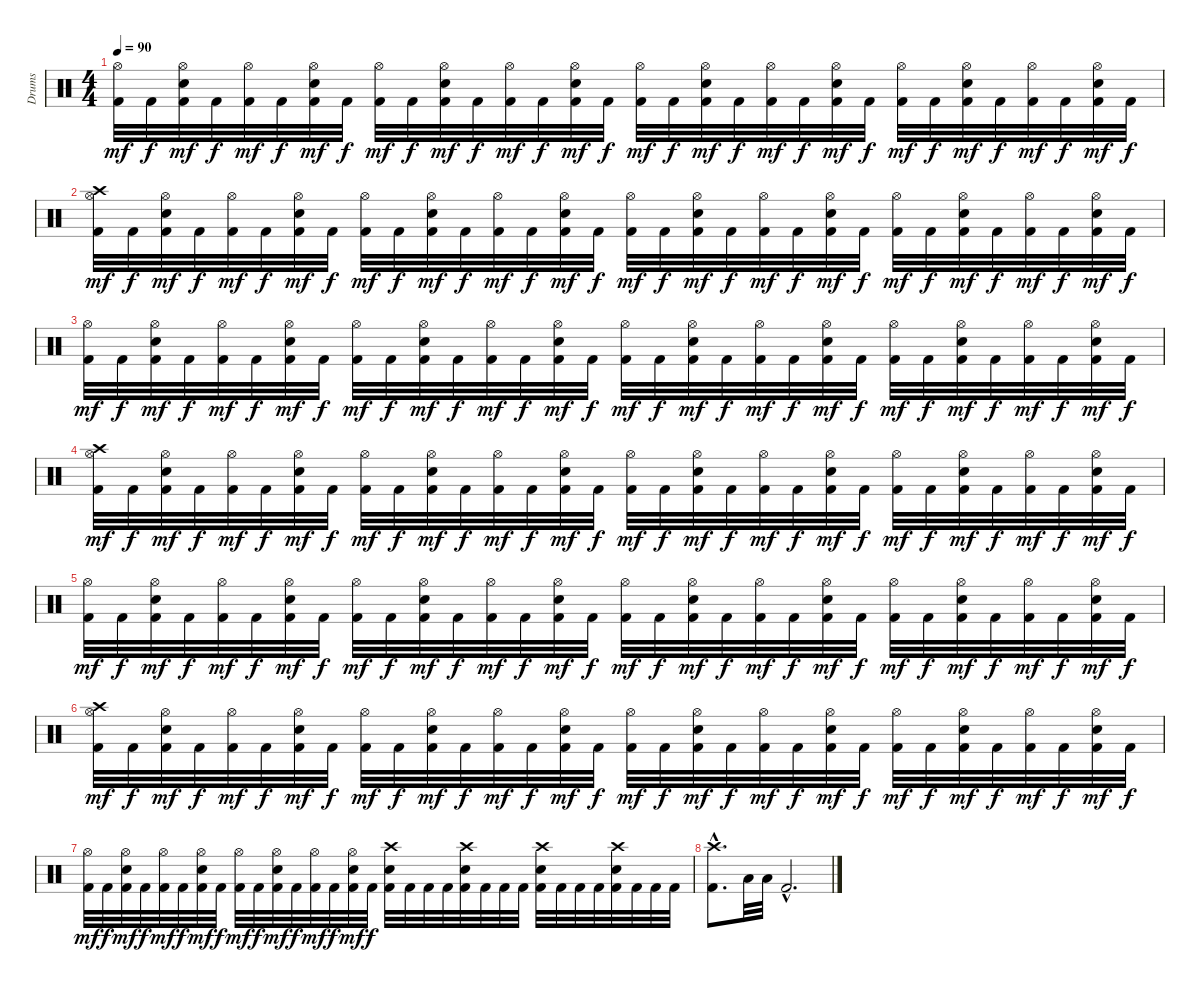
\track ("Drums" "Drums") {instrument percussion}
\staff {score}
\articulation defaults
\ts (4 4)
\tempo 90
\clef neutral
\ks c
("Hi-Hat (open)" "Kick (hit) 2").32{dy mf} "Kick (hit) 2".32{dy f} ("Hi-Hat (open)" "Electric Snare (hit)" "Kick (hit) 2").32{dy mf} "Kick (hit) 2".32{dy f} ("Hi-Hat (open)" "Kick (hit) 2").32{dy mf} "Kick (hit) 2".32{dy f} ("Hi-Hat (open)" "Electric Snare (hit)" "Kick (hit) 2").32{dy mf} "Kick (hit) 2".32{dy f} ("Hi-Hat (open)" "Kick (hit) 2").32{dy mf} "Kick (hit) 2".32{dy f} ("Hi-Hat (open)" "Electric Snare (hit)" "Kick (hit) 2").32{dy mf} "Kick (hit) 2".32{dy f} ("Hi-Hat (open)" "Kick (hit) 2").32{dy mf} "Kick (hit) 2".32{dy f} ("Hi-Hat (open)" "Electric Snare (hit)" "Kick (hit) 2").32{dy mf} "Kick (hit) 2".32{dy f} ("Hi-Hat (open)" "Kick (hit) 2").32{dy mf} "Kick (hit) 2".32{dy f} ("Hi-Hat (open)" "Electric Snare (hit)" "Kick (hit) 2").32{dy mf} "Kick (hit) 2".32{dy f} ("Hi-Hat (open)" "Kick (hit) 2").32{dy mf} "Kick (hit) 2".32{dy f} ("Hi-Hat (open)" "Electric Snare (hit)" "Kick (hit) 2").32{dy mf} "Kick (hit) 2".32{dy f} ("Hi-Hat (open)" "Kick (hit) 2").32{dy mf} "Kick (hit) 2".32{dy f} ("Hi-Hat (open)" "Electric Snare (hit)" "Kick (hit) 2").32{dy mf} "Kick (hit) 2".32{dy f} ("Hi-Hat (open)" "Kick (hit) 2").32{dy mf} "Kick (hit) 2".32{dy f} ("Hi-Hat (open)" "Electric Snare (hit)" "Kick (hit) 2").32{dy mf} "Kick (hit) 2".32{dy f} |
("Crash high (hit)" "Hi-Hat (open)" "Kick (hit) 2").32{dy mf} "Kick (hit) 2".32{dy f} ("Hi-Hat (open)" "Electric Snare (hit)" "Kick (hit) 2").32{dy mf} "Kick (hit) 2".32{dy f} ("Hi-Hat (open)" "Kick (hit) 2").32{dy mf} "Kick (hit) 2".32{dy f} ("Hi-Hat (open)" "Electric Snare (hit)" "Kick (hit) 2").32{dy mf} "Kick (hit) 2".32{dy f} ("Hi-Hat (open)" "Kick (hit) 2").32{dy mf} "Kick (hit) 2".32{dy f} ("Hi-Hat (open)" "Electric Snare (hit)" "Kick (hit) 2").32{dy mf} "Kick (hit) 2".32{dy f} ("Hi-Hat (open)" "Kick (hit) 2").32{dy mf} "Kick (hit) 2".32{dy f} ("Hi-Hat (open)" "Electric Snare (hit)" "Kick (hit) 2").32{dy mf} "Kick (hit) 2".32{dy f} ("Hi-Hat (open)" "Kick (hit) 2").32{dy mf} "Kick (hit) 2".32{dy f} ("Hi-Hat (open)" "Electric Snare (hit)" "Kick (hit) 2").32{dy mf} "Kick (hit) 2".32{dy f} ("Hi-Hat (open)" "Kick (hit) 2").32{dy mf} "Kick (hit) 2".32{dy f} ("Hi-Hat (open)" "Electric Snare (hit)" "Kick (hit) 2").32{dy mf} "Kick (hit) 2".32{dy f} ("Hi-Hat (open)" "Kick (hit) 2").32{dy mf} "Kick (hit) 2".32{dy f} ("Hi-Hat (open)" "Electric Snare (hit)" "Kick (hit) 2").32{dy mf} "Kick (hit) 2".32{dy f} ("Hi-Hat (open)" "Kick (hit) 2").32{dy mf} "Kick (hit) 2".32{dy f} ("Hi-Hat (open)" "Electric Snare (hit)" "Kick (hit) 2").32{dy mf} "Kick (hit) 2".32{dy f} |
("Hi-Hat (open)" "Kick (hit) 2").32{dy mf} "Kick (hit) 2".32{dy f} ("Hi-Hat (open)" "Electric Snare (hit)" "Kick (hit) 2").32{dy mf} "Kick (hit) 2".32{dy f} ("Hi-Hat (open)" "Kick (hit) 2").32{dy mf} "Kick (hit) 2".32{dy f} ("Hi-Hat (open)" "Electric Snare (hit)" "Kick (hit) 2").32{dy mf} "Kick (hit) 2".32{dy f} ("Hi-Hat (open)" "Kick (hit) 2").32{dy mf} "Kick (hit) 2".32{dy f} ("Hi-Hat (open)" "Electric Snare (hit)" "Kick (hit) 2").32{dy mf} "Kick (hit) 2".32{dy f} ("Hi-Hat (open)" "Kick (hit) 2").32{dy mf} "Kick (hit) 2".32{dy f} ("Hi-Hat (open)" "Electric Snare (hit)" "Kick (hit) 2").32{dy mf} "Kick (hit) 2".32{dy f} ("Hi-Hat (open)" "Kick (hit) 2").32{dy mf} "Kick (hit) 2".32{dy f} ("Hi-Hat (open)" "Electric Snare (hit)" "Kick (hit) 2").32{dy mf} "Kick (hit) 2".32{dy f} ("Hi-Hat (open)" "Kick (hit) 2").32{dy mf} "Kick (hit) 2".32{dy f} ("Hi-Hat (open)" "Electric Snare (hit)" "Kick (hit) 2").32{dy mf} "Kick (hit) 2".32{dy f} ("Hi-Hat (open)" "Kick (hit) 2").32{dy mf} "Kick (hit) 2".32{dy f} ("Hi-Hat (open)" "Electric Snare (hit)" "Kick (hit) 2").32{dy mf} "Kick (hit) 2".32{dy f} ("Hi-Hat (open)" "Kick (hit) 2").32{dy mf} "Kick (hit) 2".32{dy f} ("Hi-Hat (open)" "Electric Snare (hit)" "Kick (hit) 2").32{dy mf} "Kick (hit) 2".32{dy f} |
("Crash high (hit)" "Hi-Hat (open)" "Kick (hit) 2").32{dy mf} "Kick (hit) 2".32{dy f} ("Hi-Hat (open)" "Electric Snare (hit)" "Kick (hit) 2").32{dy mf} "Kick (hit) 2".32{dy f} ("Hi-Hat (open)" "Kick (hit) 2").32{dy mf} "Kick (hit) 2".32{dy f} ("Hi-Hat (open)" "Electric Snare (hit)" "Kick (hit) 2").32{dy mf} "Kick (hit) 2".32{dy f} ("Hi-Hat (open)" "Kick (hit) 2").32{dy mf} "Kick (hit) 2".32{dy f} ("Hi-Hat (open)" "Electric Snare (hit)" "Kick (hit) 2").32{dy mf} "Kick (hit) 2".32{dy f} ("Hi-Hat (open)" "Kick (hit) 2").32{dy mf} "Kick (hit) 2".32{dy f} ("Hi-Hat (open)" "Electric Snare (hit)" "Kick (hit) 2").32{dy mf} "Kick (hit) 2".32{dy f} ("Hi-Hat (open)" "Kick (hit) 2").32{dy mf} "Kick (hit) 2".32{dy f} ("Hi-Hat (open)" "Electric Snare (hit)" "Kick (hit) 2").32{dy mf} "Kick (hit) 2".32{dy f} ("Hi-Hat (open)" "Kick (hit) 2").32{dy mf} "Kick (hit) 2".32{dy f} ("Hi-Hat (open)" "Electric Snare (hit)" "Kick (hit) 2").32{dy mf} "Kick (hit) 2".32{dy f} ("Hi-Hat (open)" "Kick (hit) 2").32{dy mf} "Kick (hit) 2".32{dy f} ("Hi-Hat (open)" "Electric Snare (hit)" "Kick (hit) 2").32{dy mf} "Kick (hit) 2".32{dy f} ("Hi-Hat (open)" "Kick (hit) 2").32{dy mf} "Kick (hit) 2".32{dy f} ("Hi-Hat (open)" "Electric Snare (hit)" "Kick (hit) 2").32{dy mf} "Kick (hit) 2".32{dy f} |
("Hi-Hat (open)" "Kick (hit) 2").32{dy mf} "Kick (hit) 2".32{dy f} ("Hi-Hat (open)" "Electric Snare (hit)" "Kick (hit) 2").32{dy mf} "Kick (hit) 2".32{dy f} ("Hi-Hat (open)" "Kick (hit) 2").32{dy mf} "Kick (hit) 2".32{dy f} ("Hi-Hat (open)" "Electric Snare (hit)" "Kick (hit) 2").32{dy mf} "Kick (hit) 2".32{dy f} ("Hi-Hat (open)" "Kick (hit) 2").32{dy mf} "Kick (hit) 2".32{dy f} ("Hi-Hat (open)" "Electric Snare (hit)" "Kick (hit) 2").32{dy mf} "Kick (hit) 2".32{dy f} ("Hi-Hat (open)" "Kick (hit) 2").32{dy mf} "Kick (hit) 2".32{dy f} ("Hi-Hat (open)" "Electric Snare (hit)" "Kick (hit) 2").32{dy mf} "Kick (hit) 2".32{dy f} ("Hi-Hat (open)" "Kick (hit) 2").32{dy mf} "Kick (hit) 2".32{dy f} ("Hi-Hat (open)" "Electric Snare (hit)" "Kick (hit) 2").32{dy mf} "Kick (hit) 2".32{dy f} ("Hi-Hat (open)" "Kick (hit) 2").32{dy mf} "Kick (hit) 2".32{dy f} ("Hi-Hat (open)" "Electric Snare (hit)" "Kick (hit) 2").32{dy mf} "Kick (hit) 2".32{dy f} ("Hi-Hat (open)" "Kick (hit) 2").32{dy mf} "Kick (hit) 2".32{dy f} ("Hi-Hat (open)" "Electric Snare (hit)" "Kick (hit) 2").32{dy mf} "Kick (hit) 2".32{dy f} ("Hi-Hat (open)" "Kick (hit) 2").32{dy mf} "Kick (hit) 2".32{dy f} ("Hi-Hat (open)" "Electric Snare (hit)" "Kick (hit) 2").32{dy mf} "Kick (hit) 2".32{dy f} |
("Crash high (hit)" "Hi-Hat (open)" "Kick (hit) 2").32{dy mf} "Kick (hit) 2".32{dy f} ("Hi-Hat (open)" "Electric Snare (hit)" "Kick (hit) 2").32{dy mf} "Kick (hit) 2".32{dy f} ("Hi-Hat (open)" "Kick (hit) 2").32{dy mf} "Kick (hit) 2".32{dy f} ("Hi-Hat (open)" "Electric Snare (hit)" "Kick (hit) 2").32{dy mf} "Kick (hit) 2".32{dy f} ("Hi-Hat (open)" "Kick (hit) 2").32{dy mf} "Kick (hit) 2".32{dy f} ("Hi-Hat (open)" "Electric Snare (hit)" "Kick (hit) 2").32{dy mf} "Kick (hit) 2".32{dy f} ("Hi-Hat (open)" "Kick (hit) 2").32{dy mf} "Kick (hit) 2".32{dy f} ("Hi-Hat (open)" "Electric Snare (hit)" "Kick (hit) 2").32{dy mf} "Kick (hit) 2".32{dy f} ("Hi-Hat (open)" "Kick (hit) 2").32{dy mf} "Kick (hit) 2".32{dy f} ("Hi-Hat (open)" "Electric Snare (hit)" "Kick (hit) 2").32{dy mf} "Kick (hit) 2".32{dy f} ("Hi-Hat (open)" "Kick (hit) 2").32{dy mf} "Kick (hit) 2".32{dy f} ("Hi-Hat (open)" "Electric Snare (hit)" "Kick (hit) 2").32{dy mf} "Kick (hit) 2".32{dy f} ("Hi-Hat (open)" "Kick (hit) 2").32{dy mf} "Kick (hit) 2".32{dy f} ("Hi-Hat (open)" "Electric Snare (hit)" "Kick (hit) 2").32{dy mf} "Kick (hit) 2".32{dy f} ("Hi-Hat (open)" "Kick (hit) 2").32{dy mf} "Kick (hit) 2".32{dy f} ("Hi-Hat (open)" "Electric Snare (hit)" "Kick (hit) 2").32{dy mf} "Kick (hit) 2".32{dy f} |
("Hi-Hat (open)" "Kick (hit) 2").32{dy mf} "Kick (hit) 2".32{dy f} ("Hi-Hat (open)" "Electric Snare (hit)" "Kick (hit) 2").32{dy mf} "Kick (hit) 2".32{dy f} ("Hi-Hat (open)" "Kick (hit) 2").32{dy mf} "Kick (hit) 2".32{dy f} ("Hi-Hat (open)" "Electric Snare (hit)" "Kick (hit) 2").32{dy mf} "Kick (hit) 2".32{dy f} ("Hi-Hat (open)" "Kick (hit) 2").32{dy mf} "Kick (hit) 2".32{dy f} ("Hi-Hat (open)" "Electric Snare (hit)" "Kick (hit) 2").32{dy mf} "Kick (hit) 2".32{dy f} ("Hi-Hat (open)" "Kick (hit) 2").32{dy mf} "Kick (hit) 2".32{dy f} ("Hi-Hat (open)" "Electric Snare (hit)" "Kick (hit) 2").32{dy mf} "Kick (hit) 2".32{dy f} ("Crash high (hit)" "Electric Snare (hit)" "Kick (hit) 2").32 "Kick (hit) 2".32 "Kick (hit) 2".32 "Kick (hit) 2".32 ("Crash high (hit)" "Electric Snare (hit)" "Kick (hit) 2").32 "Kick (hit) 2".32 "Kick (hit) 2".32 "Kick (hit) 2".32 ("Crash high (hit)" "Electric Snare (hit)" "Kick (hit) 2").32 "Kick (hit) 2".32 "Kick (hit) 2".32 "Kick (hit) 2".32 ("Crash high (hit)" "Electric Snare (hit)" "Kick (hit) 2").32 "Kick (hit) 2".32 "Kick (hit) 2".32 "Kick (hit) 2".32 |
("Crash high (hit)"{hac} "Kick (hit) 2"{hac}).8{d} "Low Tom (hit)".32 "Low Tom (hit)".32 "Kick (hit) 2"{hac}.2{d}
